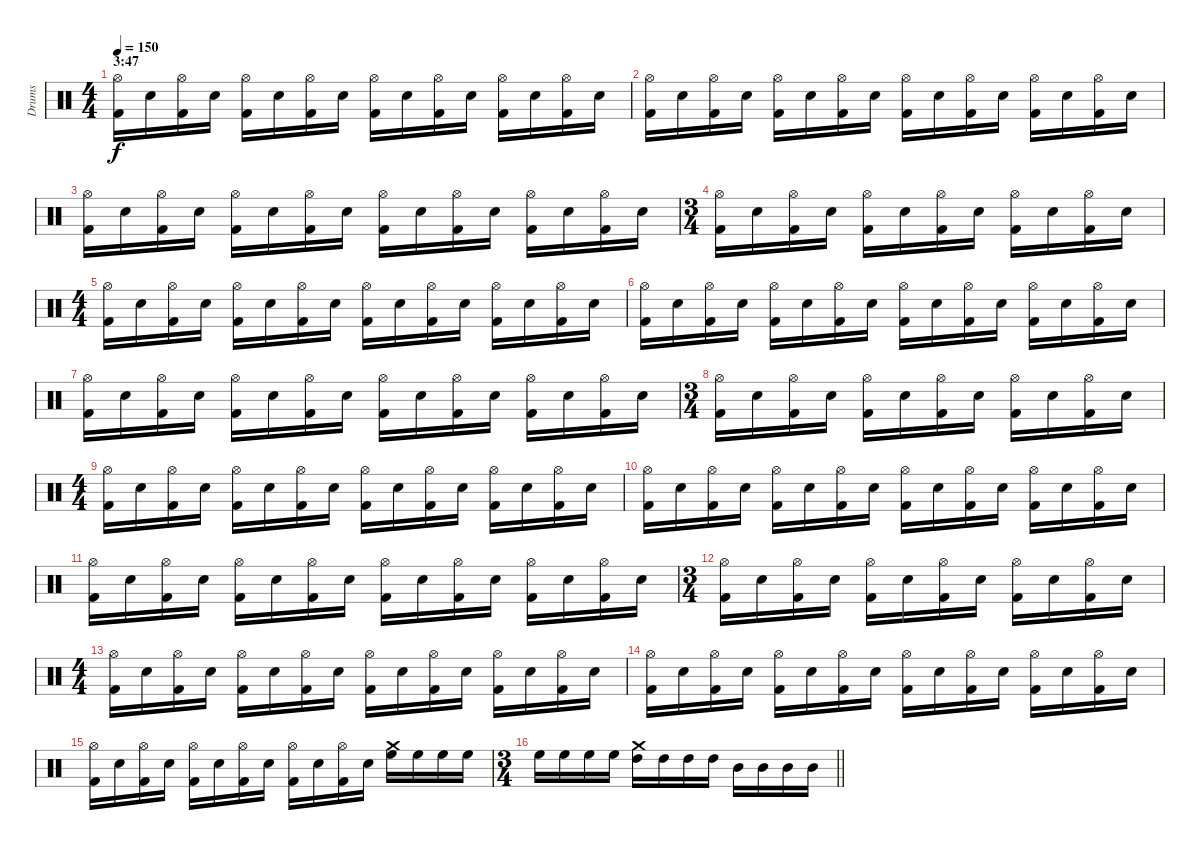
\track ("Drums" "Drums") {instrument percussion}
\staff {score}
\articulation defaults
\ts (4 4)
\section ("" "3:47")
\tempo 150
\clef neutral
\ks c
("Hi-Hat (open)" "Kick (hit) 2").16{dy f} "Electric Snare (hit)".16 ("Hi-Hat (open)" "Kick (hit) 2").16 "Electric Snare (hit)".16 ("Hi-Hat (open)" "Kick (hit) 2").16 "Electric Snare (hit)".16 ("Hi-Hat (open)" "Kick (hit) 2").16 "Electric Snare (hit)".16 ("Hi-Hat (open)" "Kick (hit) 2").16 "Electric Snare (hit)".16 ("Hi-Hat (open)" "Kick (hit) 2").16 "Electric Snare (hit)".16 ("Hi-Hat (open)" "Kick (hit) 2").16 "Electric Snare (hit)".16 ("Hi-Hat (open)" "Kick (hit) 2").16 "Electric Snare (hit)".16 |
("Hi-Hat (open)" "Kick (hit) 2").16 "Electric Snare (hit)".16 ("Hi-Hat (open)" "Kick (hit) 2").16 "Electric Snare (hit)".16 ("Hi-Hat (open)" "Kick (hit) 2").16 "Electric Snare (hit)".16 ("Hi-Hat (open)" "Kick (hit) 2").16 "Electric Snare (hit)".16 ("Hi-Hat (open)" "Kick (hit) 2").16 "Electric Snare (hit)".16 ("Hi-Hat (open)" "Kick (hit) 2").16 "Electric Snare (hit)".16 ("Hi-Hat (open)" "Kick (hit) 2").16 "Electric Snare (hit)".16 ("Hi-Hat (open)" "Kick (hit) 2").16 "Electric Snare (hit)".16 |
("Hi-Hat (open)" "Kick (hit) 2").16 "Electric Snare (hit)".16 ("Hi-Hat (open)" "Kick (hit) 2").16 "Electric Snare (hit)".16 ("Hi-Hat (open)" "Kick (hit) 2").16 "Electric Snare (hit)".16 ("Hi-Hat (open)" "Kick (hit) 2").16 "Electric Snare (hit)".16 ("Hi-Hat (open)" "Kick (hit) 2").16 "Electric Snare (hit)".16 ("Hi-Hat (open)" "Kick (hit) 2").16 "Electric Snare (hit)".16 ("Hi-Hat (open)" "Kick (hit) 2").16 "Electric Snare (hit)".16 ("Hi-Hat (open)" "Kick (hit) 2").16 "Electric Snare (hit)".16 |
\ts (3 4)
("Hi-Hat (open)" "Kick (hit) 2").16 "Electric Snare (hit)".16 ("Hi-Hat (open)" "Kick (hit) 2").16 "Electric Snare (hit)".16 ("Hi-Hat (open)" "Kick (hit) 2").16 "Electric Snare (hit)".16 ("Hi-Hat (open)" "Kick (hit) 2").16 "Electric Snare (hit)".16 ("Hi-Hat (open)" "Kick (hit) 2").16 "Electric Snare (hit)".16 ("Hi-Hat (open)" "Kick (hit) 2").16 "Electric Snare (hit)".16 |
\ts (4 4)
("Hi-Hat (open)" "Kick (hit) 2").16 "Electric Snare (hit)".16 ("Hi-Hat (open)" "Kick (hit) 2").16 "Electric Snare (hit)".16 ("Hi-Hat (open)" "Kick (hit) 2").16 "Electric Snare (hit)".16 ("Hi-Hat (open)" "Kick (hit) 2").16 "Electric Snare (hit)".16 ("Hi-Hat (open)" "Kick (hit) 2").16 "Electric Snare (hit)".16 ("Hi-Hat (open)" "Kick (hit) 2").16 "Electric Snare (hit)".16 ("Hi-Hat (open)" "Kick (hit) 2").16 "Electric Snare (hit)".16 ("Hi-Hat (open)" "Kick (hit) 2").16 "Electric Snare (hit)".16 |
("Hi-Hat (open)" "Kick (hit) 2").16 "Electric Snare (hit)".16 ("Hi-Hat (open)" "Kick (hit) 2").16 "Electric Snare (hit)".16 ("Hi-Hat (open)" "Kick (hit) 2").16 "Electric Snare (hit)".16 ("Hi-Hat (open)" "Kick (hit) 2").16 "Electric Snare (hit)".16 ("Hi-Hat (open)" "Kick (hit) 2").16 "Electric Snare (hit)".16 ("Hi-Hat (open)" "Kick (hit) 2").16 "Electric Snare (hit)".16 ("Hi-Hat (open)" "Kick (hit) 2").16 "Electric Snare (hit)".16 ("Hi-Hat (open)" "Kick (hit) 2").16 "Electric Snare (hit)".16 |
("Hi-Hat (open)" "Kick (hit) 2").16 "Electric Snare (hit)".16 ("Hi-Hat (open)" "Kick (hit) 2").16 "Electric Snare (hit)".16 ("Hi-Hat (open)" "Kick (hit) 2").16 "Electric Snare (hit)".16 ("Hi-Hat (open)" "Kick (hit) 2").16 "Electric Snare (hit)".16 ("Hi-Hat (open)" "Kick (hit) 2").16 "Electric Snare (hit)".16 ("Hi-Hat (open)" "Kick (hit) 2").16 "Electric Snare (hit)".16 ("Hi-Hat (open)" "Kick (hit) 2").16 "Electric Snare (hit)".16 ("Hi-Hat (open)" "Kick (hit) 2").16 "Electric Snare (hit)".16 |
\ts (3 4)
("Hi-Hat (open)" "Kick (hit) 2").16 "Electric Snare (hit)".16 ("Hi-Hat (open)" "Kick (hit) 2").16 "Electric Snare (hit)".16 ("Hi-Hat (open)" "Kick (hit) 2").16 "Electric Snare (hit)".16 ("Hi-Hat (open)" "Kick (hit) 2").16 "Electric Snare (hit)".16 ("Hi-Hat (open)" "Kick (hit) 2").16 "Electric Snare (hit)".16 ("Hi-Hat (open)" "Kick (hit) 2").16 "Electric Snare (hit)".16 |
\ts (4 4)
("Hi-Hat (open)" "Kick (hit) 2").16 "Electric Snare (hit)".16 ("Hi-Hat (open)" "Kick (hit) 2").16 "Electric Snare (hit)".16 ("Hi-Hat (open)" "Kick (hit) 2").16 "Electric Snare (hit)".16 ("Hi-Hat (open)" "Kick (hit) 2").16 "Electric Snare (hit)".16 ("Hi-Hat (open)" "Kick (hit) 2").16 "Electric Snare (hit)".16 ("Hi-Hat (open)" "Kick (hit) 2").16 "Electric Snare (hit)".16 ("Hi-Hat (open)" "Kick (hit) 2").16 "Electric Snare (hit)".16 ("Hi-Hat (open)" "Kick (hit) 2").16 "Electric Snare (hit)".16 |
("Hi-Hat (open)" "Kick (hit) 2").16 "Electric Snare (hit)".16 ("Hi-Hat (open)" "Kick (hit) 2").16 "Electric Snare (hit)".16 ("Hi-Hat (open)" "Kick (hit) 2").16 "Electric Snare (hit)".16 ("Hi-Hat (open)" "Kick (hit) 2").16 "Electric Snare (hit)".16 ("Hi-Hat (open)" "Kick (hit) 2").16 "Electric Snare (hit)".16 ("Hi-Hat (open)" "Kick (hit) 2").16 "Electric Snare (hit)".16 ("Hi-Hat (open)" "Kick (hit) 2").16 "Electric Snare (hit)".16 ("Hi-Hat (open)" "Kick (hit) 2").16 "Electric Snare (hit)".16 |
("Hi-Hat (open)" "Kick (hit) 2").16 "Electric Snare (hit)".16 ("Hi-Hat (open)" "Kick (hit) 2").16 "Electric Snare (hit)".16 ("Hi-Hat (open)" "Kick (hit) 2").16 "Electric Snare (hit)".16 ("Hi-Hat (open)" "Kick (hit) 2").16 "Electric Snare (hit)".16 ("Hi-Hat (open)" "Kick (hit) 2").16 "Electric Snare (hit)".16 ("Hi-Hat (open)" "Kick (hit) 2").16 "Electric Snare (hit)".16 ("Hi-Hat (open)" "Kick (hit) 2").16 "Electric Snare (hit)".16 ("Hi-Hat (open)" "Kick (hit) 2").16 "Electric Snare (hit)".16 |
\ts (3 4)
("Hi-Hat (open)" "Kick (hit) 2").16 "Electric Snare (hit)".16 ("Hi-Hat (open)" "Kick (hit) 2").16 "Electric Snare (hit)".16 ("Hi-Hat (open)" "Kick (hit) 2").16 "Electric Snare (hit)".16 ("Hi-Hat (open)" "Kick (hit) 2").16 "Electric Snare (hit)".16 ("Hi-Hat (open)" "Kick (hit) 2").16 "Electric Snare (hit)".16 ("Hi-Hat (open)" "Kick (hit) 2").16 "Electric Snare (hit)".16 |
\ts (4 4)
("Hi-Hat (open)" "Kick (hit) 2").16 "Electric Snare (hit)".16 ("Hi-Hat (open)" "Kick (hit) 2").16 "Electric Snare (hit)".16 ("Hi-Hat (open)" "Kick (hit) 2").16 "Electric Snare (hit)".16 ("Hi-Hat (open)" "Kick (hit) 2").16 "Electric Snare (hit)".16 ("Hi-Hat (open)" "Kick (hit) 2").16 "Electric Snare (hit)".16 ("Hi-Hat (open)" "Kick (hit) 2").16 "Electric Snare (hit)".16 ("Hi-Hat (open)" "Kick (hit) 2").16 "Electric Snare (hit)".16 ("Hi-Hat (open)" "Kick (hit) 2").16 "Electric Snare (hit)".16 |
("Hi-Hat (open)" "Kick (hit) 2").16 "Electric Snare (hit)".16 ("Hi-Hat (open)" "Kick (hit) 2").16 "Electric Snare (hit)".16 ("Hi-Hat (open)" "Kick (hit) 2").16 "Electric Snare (hit)".16 ("Hi-Hat (open)" "Kick (hit) 2").16 "Electric Snare (hit)".16 ("Hi-Hat (open)" "Kick (hit) 2").16 "Electric Snare (hit)".16 ("Hi-Hat (open)" "Kick (hit) 2").16 "Electric Snare (hit)".16 ("Hi-Hat (open)" "Kick (hit) 2").16 "Electric Snare (hit)".16 ("Hi-Hat (open)" "Kick (hit) 2").16 "Electric Snare (hit)".16 |
("Hi-Hat (open)" "Kick (hit) 2").16 "Electric Snare (hit)".16 ("Hi-Hat (open)" "Kick (hit) 2").16 "Electric Snare (hit)".16 ("Hi-Hat (open)" "Kick (hit) 2").16 "Electric Snare (hit)".16 ("Hi-Hat (open)" "Kick (hit) 2").16 "Electric Snare (hit)".16 ("Hi-Hat (open)" "Kick (hit) 2").16 "Electric Snare (hit)".16 ("Hi-Hat (open)" "Kick (hit) 2").16 "Electric Snare (hit)".16 ("Crash medium (hit)" "High Floor Tom (hit)").16 "High Floor Tom (hit)".16 "High Floor Tom (hit)".16 "High Floor Tom (hit)".16 |
\ts (3 4)
\barLineRight lightlight "High Floor Tom (hit)".16 "High Floor Tom (hit)".16 "High Floor Tom (hit)".16 "High Floor Tom (hit)".16
("Crash medium (hit)" "High Tom (hit)").16 "High Tom (hit)".16 "High Tom (hit)".16 "High Tom (hit)".16 "Mid Tom (hit)".16 "Mid Tom (hit)".16 "Mid Tom (hit)".16 "Mid Tom (hit)".16
